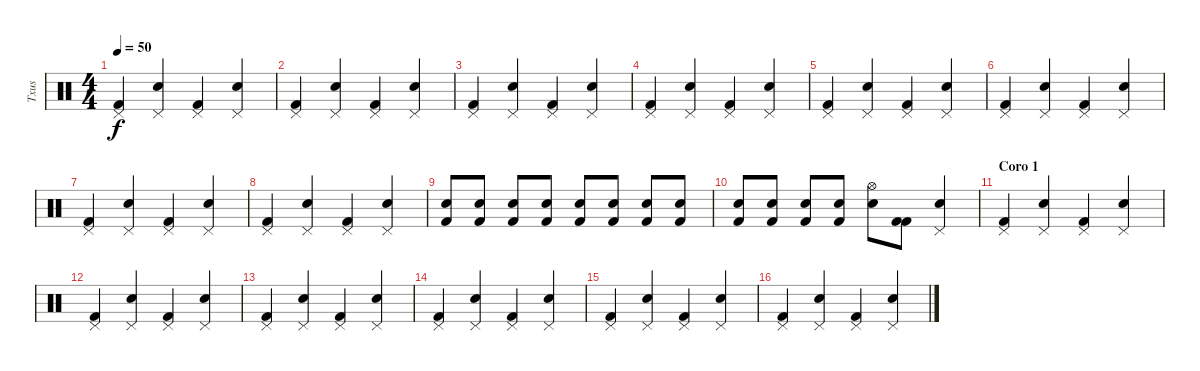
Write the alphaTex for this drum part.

\track ("Txus" "Txus") {instrument percussion}
\staff {score}
\articulation defaults
\ts (4 4)
\tempo 50
\clef neutral
\ks c
("Pedal Hi-Hat (hit)" "Kick (hit) 2").4{dy f} ("Pedal Hi-Hat (hit)" "Snare (hit) 2").4 ("Pedal Hi-Hat (hit)" "Kick (hit) 2").4 ("Pedal Hi-Hat (hit)" "Snare (hit) 2").4 |
("Pedal Hi-Hat (hit)" "Kick (hit) 2").4 ("Pedal Hi-Hat (hit)" "Snare (hit) 2").4 ("Pedal Hi-Hat (hit)" "Kick (hit) 2").4 ("Pedal Hi-Hat (hit)" "Snare (hit) 2").4 |
("Pedal Hi-Hat (hit)" "Kick (hit) 2").4 ("Pedal Hi-Hat (hit)" "Snare (hit) 2").4 ("Pedal Hi-Hat (hit)" "Kick (hit) 2").4 ("Pedal Hi-Hat (hit)" "Snare (hit) 2").4 |
("Pedal Hi-Hat (hit)" "Kick (hit) 2").4 ("Pedal Hi-Hat (hit)" "Snare (hit) 2").4 ("Pedal Hi-Hat (hit)" "Kick (hit) 2").4 ("Pedal Hi-Hat (hit)" "Snare (hit) 2").4 |
("Pedal Hi-Hat (hit)" "Kick (hit) 2").4 ("Pedal Hi-Hat (hit)" "Snare (hit) 2").4 ("Pedal Hi-Hat (hit)" "Kick (hit) 2").4 ("Pedal Hi-Hat (hit)" "Snare (hit) 2").4 |
("Pedal Hi-Hat (hit)" "Kick (hit) 2").4 ("Pedal Hi-Hat (hit)" "Snare (hit) 2").4 ("Pedal Hi-Hat (hit)" "Kick (hit) 2").4 ("Pedal Hi-Hat (hit)" "Snare (hit) 2").4 |
("Pedal Hi-Hat (hit)" "Kick (hit) 2").4 ("Pedal Hi-Hat (hit)" "Snare (hit) 2").4 ("Pedal Hi-Hat (hit)" "Kick (hit) 2").4 ("Pedal Hi-Hat (hit)" "Snare (hit) 2").4 |
("Pedal Hi-Hat (hit)" "Kick (hit) 2").4 ("Pedal Hi-Hat (hit)" "Snare (hit) 2").4 ("Pedal Hi-Hat (hit)" "Kick (hit) 2").4 ("Pedal Hi-Hat (hit)" "Snare (hit) 2").4 |
("Kick (hit) 2" "Snare (hit) 2").8{volume 3} ("Kick (hit) 2" "Snare (hit) 2").8 ("Kick (hit) 2" "Snare (hit) 2").8 ("Kick (hit) 2" "Snare (hit) 2").8 ("Kick (hit) 2" "Snare (hit) 2").8{volume 5} ("Kick (hit) 2" "Snare (hit) 2").8 ("Kick (hit) 2" "Snare (hit) 2").8 ("Kick (hit) 2" "Snare (hit) 2").8 |
("Kick (hit) 2" "Snare (hit) 2").8{volume 8} ("Kick (hit) 2" "Snare (hit) 2").8 ("Kick (hit) 2" "Snare (hit) 2").8 ("Kick (hit) 2" "Snare (hit) 2").8 ("Hi-Hat (open)" "Snare (hit) 2").8 ("Kick (hit) 2" "Kick (hit) 2").8 ("Pedal Hi-Hat (hit)" "Snare (hit) 2").4 |
\section ("" "Coro 1")
("Pedal Hi-Hat (hit)" "Kick (hit) 2").4 ("Pedal Hi-Hat (hit)" "Snare (hit) 2").4 ("Pedal Hi-Hat (hit)" "Kick (hit) 2").4 ("Pedal Hi-Hat (hit)" "Snare (hit) 2").4 |
("Pedal Hi-Hat (hit)" "Kick (hit) 2").4 ("Pedal Hi-Hat (hit)" "Snare (hit) 2").4 ("Pedal Hi-Hat (hit)" "Kick (hit) 2").4 ("Pedal Hi-Hat (hit)" "Snare (hit) 2").4 |
("Pedal Hi-Hat (hit)" "Kick (hit) 2").4 ("Pedal Hi-Hat (hit)" "Snare (hit) 2").4 ("Pedal Hi-Hat (hit)" "Kick (hit) 2").4 ("Pedal Hi-Hat (hit)" "Snare (hit) 2").4 |
("Pedal Hi-Hat (hit)" "Kick (hit) 2").4 ("Pedal Hi-Hat (hit)" "Snare (hit) 2").4 ("Pedal Hi-Hat (hit)" "Kick (hit) 2").4 ("Pedal Hi-Hat (hit)" "Snare (hit) 2").4 |
("Pedal Hi-Hat (hit)" "Kick (hit) 2").4 ("Pedal Hi-Hat (hit)" "Snare (hit) 2").4 ("Pedal Hi-Hat (hit)" "Kick (hit) 2").4 ("Pedal Hi-Hat (hit)" "Snare (hit) 2").4 |
("Pedal Hi-Hat (hit)" "Kick (hit) 2").4 ("Pedal Hi-Hat (hit)" "Snare (hit) 2").4 ("Pedal Hi-Hat (hit)" "Kick (hit) 2").4 ("Pedal Hi-Hat (hit)" "Snare (hit) 2").4
